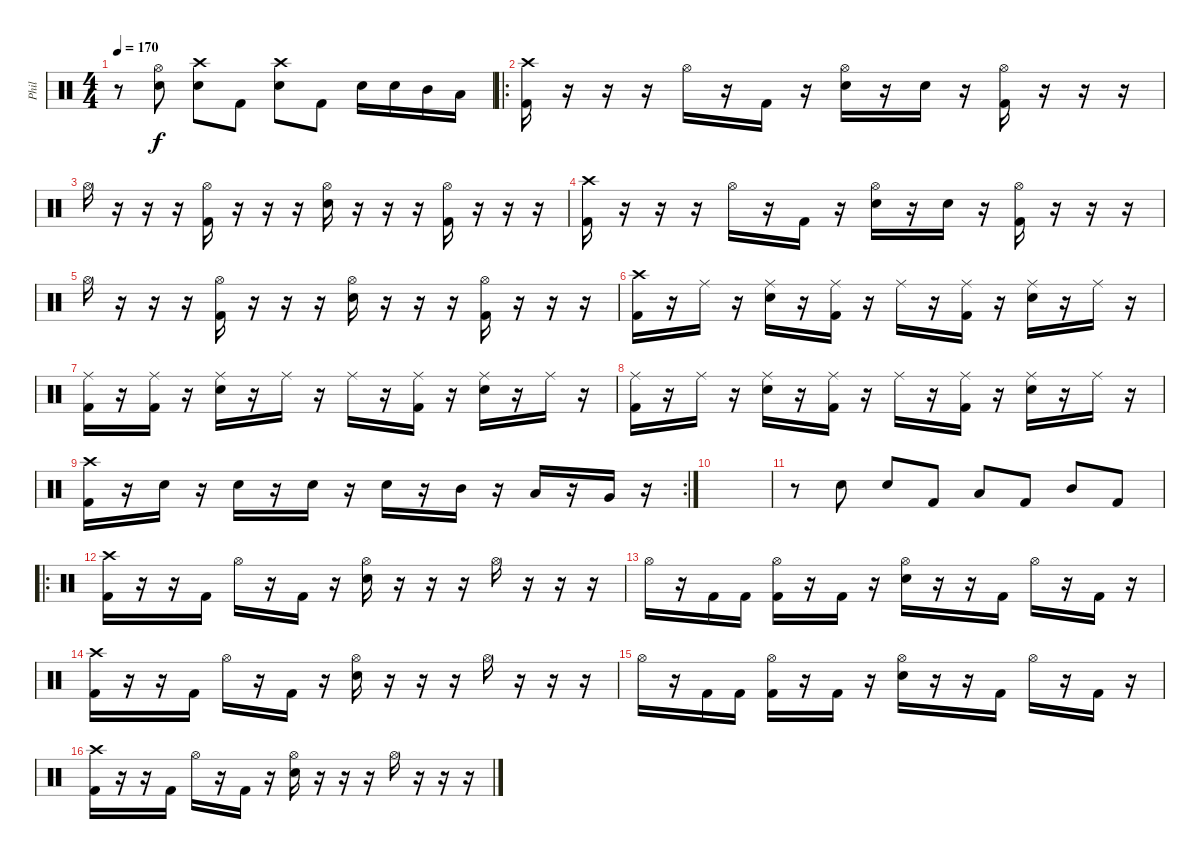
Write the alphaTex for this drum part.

\track ("Phil" "Phil") {instrument percussion}
\staff {score}
\articulation defaults
\ts (4 4)
\tempo 170
\clef neutral
\ks c
r.8{dy f} ("Hi-Hat (open)" "Electric Snare (hit)").8 ("Crash high (hit)" "Electric Snare (hit)").8 "Kick (hit) 2".8 ("Crash high (hit)" "Electric Snare (hit)").8 "Kick (hit) 2".8 "Electric Snare (hit)".16 "Electric Snare (hit)".16 "Mid Tom (hit)".16 "Low Tom (hit)".16 |
\ro
("Crash high (hit)" "Kick (hit) 2").16 r.16 r.16 r.16 "Hi-Hat (open)".16 r.16 "Kick (hit) 2".16 r.16 ("Hi-Hat (open)" "Electric Snare (hit)").16 r.16 "Electric Snare (hit)".16 r.16 ("Hi-Hat (open)" "Kick (hit) 2").16 r.16 r.16 r.16 |
"Hi-Hat (open)".16 r.16 r.16 r.16 ("Hi-Hat (open)" "Kick (hit) 2").16 r.16 r.16 r.16 ("Hi-Hat (open)" "Electric Snare (hit)").16 r.16 r.16 r.16 ("Hi-Hat (open)" "Kick (hit) 2").16 r.16 r.16 r.16 |
("Crash high (hit)" "Kick (hit) 2").16 r.16 r.16 r.16 "Hi-Hat (open)".16 r.16 "Kick (hit) 2".16 r.16 ("Hi-Hat (open)" "Electric Snare (hit)").16 r.16 "Electric Snare (hit)".16 r.16 ("Hi-Hat (open)" "Kick (hit) 2").16 r.16 r.16 r.16 |
"Hi-Hat (open)".16 r.16 r.16 r.16 ("Hi-Hat (open)" "Kick (hit) 2").16 r.16 r.16 r.16 ("Hi-Hat (open)" "Electric Snare (hit)").16 r.16 r.16 r.16 ("Hi-Hat (open)" "Kick (hit) 2").16 r.16 r.16 r.16 |
("Crash high (hit)" "Kick (hit) 2").16 r.16 "Ride (middle)".16 r.16 ("Ride (middle)" "Electric Snare (hit)").16 r.16 ("Ride (middle)" "Kick (hit) 2").16 r.16 "Ride (middle)".16 r.16 ("Ride (middle)" "Kick (hit) 2").16 r.16 ("Ride (middle)" "Electric Snare (hit)").16 r.16 "Ride (middle)".16 r.16 |
("Ride (middle)" "Kick (hit) 2").16 r.16 ("Ride (middle)" "Kick (hit) 2").16 r.16 ("Ride (middle)" "Electric Snare (hit)").16 r.16 "Ride (middle)".16 r.16 "Ride (middle)".16 r.16 ("Ride (middle)" "Kick (hit) 2").16 r.16 ("Ride (middle)" "Electric Snare (hit)").16 r.16 "Ride (middle)".16 r.16 |
("Ride (middle)" "Kick (hit) 2").16 r.16 "Ride (middle)".16 r.16 ("Ride (middle)" "Electric Snare (hit)").16 r.16 ("Ride (middle)" "Kick (hit) 2").16 r.16 "Ride (middle)".16 r.16 ("Ride (middle)" "Kick (hit) 2").16 r.16 ("Ride (middle)" "Electric Snare (hit)").16 r.16 "Ride (middle)".16 r.16 |
\rc 2
("Crash high (hit)" "Kick (hit) 2").16 r.16 "Electric Snare (hit)".16 r.16 "Electric Snare (hit)".16 r.16 "Electric Snare (hit)".16 r.16 "Electric Snare (hit)".16 r.16 "Mid Tom (hit)".16 r.16 "Low Tom (hit)".16 r.16 "Very Low Tom (hit)".16 r.16 |
|
r.8 "Electric Snare (hit)".8 "Electric Snare (hit)".8 "Kick (hit) 2".8 "Low Tom (hit)".8 "Kick (hit) 2".8 "Mid Tom (hit)".8 "Kick (hit) 2".8 |
\ro
("Crash high (hit)" "Kick (hit) 2").16 r.16 r.16 "Kick (hit) 2".16 "Hi-Hat (open)".16 r.16 "Kick (hit) 2".16 r.16 ("Hi-Hat (open)" "Electric Snare (hit)").16 r.16 r.16 r.16 "Hi-Hat (open)".16 r.16 r.16 r.16 |
"Hi-Hat (open)".16 r.16 "Kick (hit) 2".16 "Kick (hit) 2".16 ("Hi-Hat (open)" "Kick (hit) 2").16 r.16 "Kick (hit) 2".16 r.16 ("Hi-Hat (open)" "Electric Snare (hit)").16 r.16 r.16 "Kick (hit) 2".16 "Hi-Hat (open)".16 r.16 "Kick (hit) 2".16 r.16 |
("Crash high (hit)" "Kick (hit) 2").16 r.16 r.16 "Kick (hit) 2".16 "Hi-Hat (open)".16 r.16 "Kick (hit) 2".16 r.16 ("Hi-Hat (open)" "Electric Snare (hit)").16 r.16 r.16 r.16 "Hi-Hat (open)".16 r.16 r.16 r.16 |
"Hi-Hat (open)".16 r.16 "Kick (hit) 2".16 "Kick (hit) 2".16 ("Hi-Hat (open)" "Kick (hit) 2").16 r.16 "Kick (hit) 2".16 r.16 ("Hi-Hat (open)" "Electric Snare (hit)").16 r.16 r.16 "Kick (hit) 2".16 "Hi-Hat (open)".16 r.16 "Kick (hit) 2".16 r.16 |
("Crash high (hit)" "Kick (hit) 2").16 r.16 r.16 "Kick (hit) 2".16 "Hi-Hat (open)".16 r.16 "Kick (hit) 2".16 r.16 ("Hi-Hat (open)" "Electric Snare (hit)").16 r.16 r.16 r.16 "Hi-Hat (open)".16 r.16 r.16 r.16
